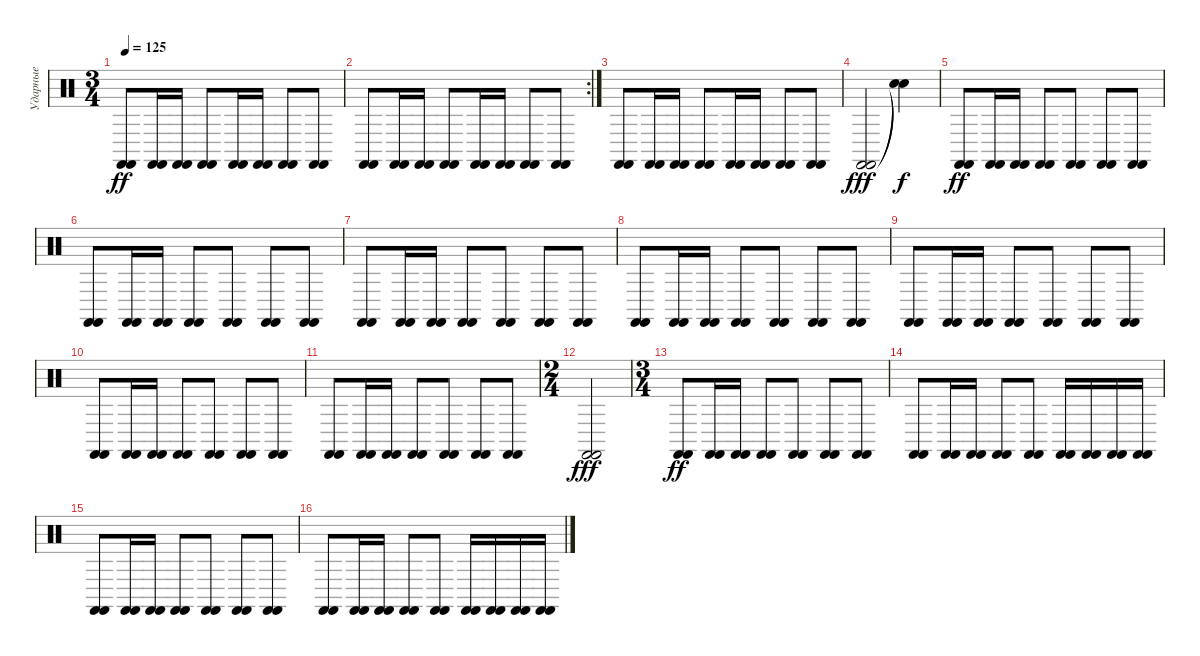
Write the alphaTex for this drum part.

\track ("Ударные" "Ударные") {instrument percussion}
\staff {score}
\articulation defaults
\ts (3 4)
\tempo 125
\clef neutral
\ks c
("Castanets (hit)" "Castanets (hit)").8{dy ff} ("Castanets (hit)" "Castanets (hit)").16 ("Castanets (hit)" "Castanets (hit)").16 ("Castanets (hit)" "Castanets (hit)").8 ("Castanets (hit)" "Castanets (hit)").16 ("Castanets (hit)" "Castanets (hit)").16 ("Castanets (hit)" "Castanets (hit)").8 ("Castanets (hit)" "Castanets (hit)").8 |
\rc 2
("Castanets (hit)" "Castanets (hit)").8 ("Castanets (hit)" "Castanets (hit)").16 ("Castanets (hit)" "Castanets (hit)").16 ("Castanets (hit)" "Castanets (hit)").8 ("Castanets (hit)" "Castanets (hit)").16 ("Castanets (hit)" "Castanets (hit)").16 ("Castanets (hit)" "Castanets (hit)").8 ("Castanets (hit)" "Castanets (hit)").8 |
("Castanets (hit)" "Castanets (hit)").8 ("Castanets (hit)" "Castanets (hit)").16 ("Castanets (hit)" "Castanets (hit)").16 ("Castanets (hit)" "Castanets (hit)").8 ("Castanets (hit)" "Castanets (hit)").16 ("Castanets (hit)" "Castanets (hit)").16 ("Castanets (hit)" "Castanets (hit)").8 ("Castanets (hit)" "Castanets (hit)").8 |
("Castanets (hit)" "Castanets (hit)").2{dy fff} ("Snare (hit)"{t} "Snare (hit)"{t}).4{dy f} |
("Castanets (hit)" "Castanets (hit)").8{dy ff} ("Castanets (hit)" "Castanets (hit)").16 ("Castanets (hit)" "Castanets (hit)").16 ("Castanets (hit)" "Castanets (hit)").8 ("Castanets (hit)" "Castanets (hit)").8 ("Castanets (hit)" "Castanets (hit)").8 ("Castanets (hit)" "Castanets (hit)").8 |
("Castanets (hit)" "Castanets (hit)").8 ("Castanets (hit)" "Castanets (hit)").16 ("Castanets (hit)" "Castanets (hit)").16 ("Castanets (hit)" "Castanets (hit)").8 ("Castanets (hit)" "Castanets (hit)").8 ("Castanets (hit)" "Castanets (hit)").8 ("Castanets (hit)" "Castanets (hit)").8 |
("Castanets (hit)" "Castanets (hit)").8 ("Castanets (hit)" "Castanets (hit)").16 ("Castanets (hit)" "Castanets (hit)").16 ("Castanets (hit)" "Castanets (hit)").8 ("Castanets (hit)" "Castanets (hit)").8 ("Castanets (hit)" "Castanets (hit)").8 ("Castanets (hit)" "Castanets (hit)").8 |
("Castanets (hit)" "Castanets (hit)").8 ("Castanets (hit)" "Castanets (hit)").16 ("Castanets (hit)" "Castanets (hit)").16 ("Castanets (hit)" "Castanets (hit)").8 ("Castanets (hit)" "Castanets (hit)").8 ("Castanets (hit)" "Castanets (hit)").8 ("Castanets (hit)" "Castanets (hit)").8 |
("Castanets (hit)" "Castanets (hit)").8 ("Castanets (hit)" "Castanets (hit)").16 ("Castanets (hit)" "Castanets (hit)").16 ("Castanets (hit)" "Castanets (hit)").8 ("Castanets (hit)" "Castanets (hit)").8 ("Castanets (hit)" "Castanets (hit)").8 ("Castanets (hit)" "Castanets (hit)").8 |
("Castanets (hit)" "Castanets (hit)").8 ("Castanets (hit)" "Castanets (hit)").16 ("Castanets (hit)" "Castanets (hit)").16 ("Castanets (hit)" "Castanets (hit)").8 ("Castanets (hit)" "Castanets (hit)").8 ("Castanets (hit)" "Castanets (hit)").8 ("Castanets (hit)" "Castanets (hit)").8 |
("Castanets (hit)" "Castanets (hit)").8 ("Castanets (hit)" "Castanets (hit)").16 ("Castanets (hit)" "Castanets (hit)").16 ("Castanets (hit)" "Castanets (hit)").8 ("Castanets (hit)" "Castanets (hit)").8 ("Castanets (hit)" "Castanets (hit)").8 ("Castanets (hit)" "Castanets (hit)").8 |
\ts (2 4)
("Castanets (hit)" "Castanets (hit)").2{dy fff} |
\ts (3 4)
("Castanets (hit)" "Castanets (hit)").8{dy ff} ("Castanets (hit)" "Castanets (hit)").16 ("Castanets (hit)" "Castanets (hit)").16 ("Castanets (hit)" "Castanets (hit)").8 ("Castanets (hit)" "Castanets (hit)").8 ("Castanets (hit)" "Castanets (hit)").8 ("Castanets (hit)" "Castanets (hit)").8 |
("Castanets (hit)" "Castanets (hit)").8 ("Castanets (hit)" "Castanets (hit)").16 ("Castanets (hit)" "Castanets (hit)").16 ("Castanets (hit)" "Castanets (hit)").8 ("Castanets (hit)" "Castanets (hit)").8 ("Castanets (hit)" "Castanets (hit)").16 ("Castanets (hit)" "Castanets (hit)").16 ("Castanets (hit)" "Castanets (hit)").16 ("Castanets (hit)" "Castanets (hit)").16 |
("Castanets (hit)" "Castanets (hit)").8 ("Castanets (hit)" "Castanets (hit)").16 ("Castanets (hit)" "Castanets (hit)").16 ("Castanets (hit)" "Castanets (hit)").8 ("Castanets (hit)" "Castanets (hit)").8 ("Castanets (hit)" "Castanets (hit)").8 ("Castanets (hit)" "Castanets (hit)").8 |
("Castanets (hit)" "Castanets (hit)").8 ("Castanets (hit)" "Castanets (hit)").16 ("Castanets (hit)" "Castanets (hit)").16 ("Castanets (hit)" "Castanets (hit)").8 ("Castanets (hit)" "Castanets (hit)").8 ("Castanets (hit)" "Castanets (hit)").16 ("Castanets (hit)" "Castanets (hit)").16 ("Castanets (hit)" "Castanets (hit)").16 ("Castanets (hit)" "Castanets (hit)").16
